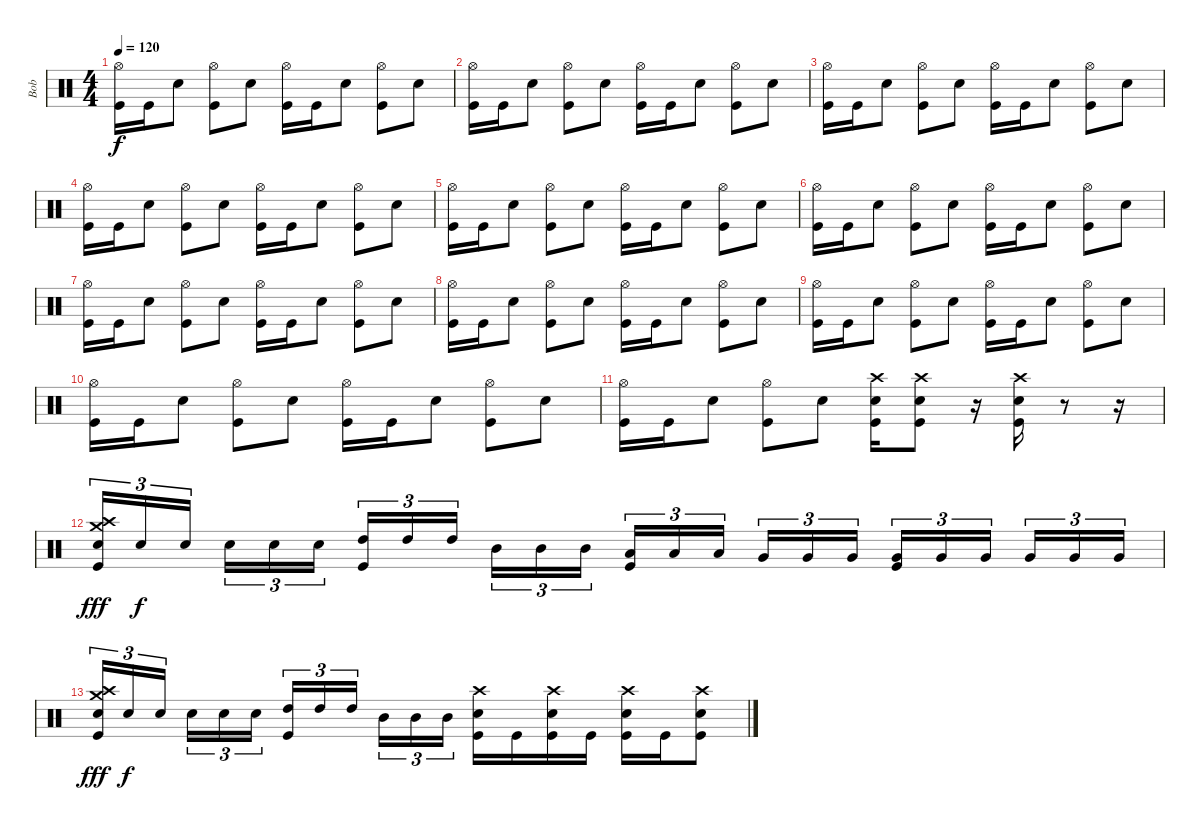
\track ("Bob" "Bob") {instrument percussion}
\staff {score}
\articulation defaults
\ts (4 4)
\tempo 120
\clef neutral
\ks c
("Hi-Hat (open)" "Kick (hit)").16{dy f} "Kick (hit)".16 "Snare (hit) 2".8 ("Hi-Hat (open)" "Kick (hit)").8 "Snare (hit) 2".8 ("Hi-Hat (open)" "Kick (hit)").16 "Kick (hit)".16 "Snare (hit) 2".8 ("Hi-Hat (open)" "Kick (hit)").8 "Snare (hit) 2".8 |
("Hi-Hat (open)" "Kick (hit)").16 "Kick (hit)".16 "Snare (hit) 2".8 ("Hi-Hat (open)" "Kick (hit)").8 "Snare (hit) 2".8 ("Hi-Hat (open)" "Kick (hit)").16 "Kick (hit)".16 "Snare (hit) 2".8 ("Hi-Hat (open)" "Kick (hit)").8 "Snare (hit) 2".8 |
("Hi-Hat (open)" "Kick (hit)").16 "Kick (hit)".16 "Snare (hit) 2".8 ("Hi-Hat (open)" "Kick (hit)").8 "Snare (hit) 2".8 ("Hi-Hat (open)" "Kick (hit)").16 "Kick (hit)".16 "Snare (hit) 2".8 ("Hi-Hat (open)" "Kick (hit)").8 "Snare (hit) 2".8 |
("Hi-Hat (open)" "Kick (hit)").16 "Kick (hit)".16 "Snare (hit) 2".8 ("Hi-Hat (open)" "Kick (hit)").8 "Snare (hit) 2".8 ("Hi-Hat (open)" "Kick (hit)").16 "Kick (hit)".16 "Snare (hit) 2".8 ("Hi-Hat (open)" "Kick (hit)").8 "Snare (hit) 2".8 |
("Hi-Hat (open)" "Kick (hit)").16 "Kick (hit)".16 "Snare (hit) 2".8 ("Hi-Hat (open)" "Kick (hit)").8 "Snare (hit) 2".8 ("Hi-Hat (open)" "Kick (hit)").16 "Kick (hit)".16 "Snare (hit) 2".8 ("Hi-Hat (open)" "Kick (hit)").8 "Snare (hit) 2".8 |
("Hi-Hat (open)" "Kick (hit)").16 "Kick (hit)".16 "Snare (hit) 2".8 ("Hi-Hat (open)" "Kick (hit)").8 "Snare (hit) 2".8 ("Hi-Hat (open)" "Kick (hit)").16 "Kick (hit)".16 "Snare (hit) 2".8 ("Hi-Hat (open)" "Kick (hit)").8 "Snare (hit) 2".8 |
("Hi-Hat (open)" "Kick (hit)").16 "Kick (hit)".16 "Snare (hit) 2".8 ("Hi-Hat (open)" "Kick (hit)").8 "Snare (hit) 2".8 ("Hi-Hat (open)" "Kick (hit)").16 "Kick (hit)".16 "Snare (hit) 2".8 ("Hi-Hat (open)" "Kick (hit)").8 "Snare (hit) 2".8 |
("Hi-Hat (open)" "Kick (hit)").16 "Kick (hit)".16 "Snare (hit) 2".8 ("Hi-Hat (open)" "Kick (hit)").8 "Snare (hit) 2".8 ("Hi-Hat (open)" "Kick (hit)").16 "Kick (hit)".16 "Snare (hit) 2".8 ("Hi-Hat (open)" "Kick (hit)").8 "Snare (hit) 2".8 |
("Hi-Hat (open)" "Kick (hit)").16 "Kick (hit)".16 "Snare (hit) 2".8 ("Hi-Hat (open)" "Kick (hit)").8 "Snare (hit) 2".8 ("Hi-Hat (open)" "Kick (hit)").16 "Kick (hit)".16 "Snare (hit) 2".8 ("Hi-Hat (open)" "Kick (hit)").8 "Snare (hit) 2".8 |
("Hi-Hat (open)" "Kick (hit)").16 "Kick (hit)".16 "Snare (hit) 2".8 ("Hi-Hat (open)" "Kick (hit)").8 "Snare (hit) 2".8 ("Hi-Hat (open)" "Kick (hit)").16 "Kick (hit)".16 "Snare (hit) 2".8 ("Hi-Hat (open)" "Kick (hit)").8 "Snare (hit) 2".8 |
("Hi-Hat (open)" "Kick (hit)").16 "Kick (hit)".16 "Snare (hit) 2".8 ("Hi-Hat (open)" "Kick (hit)").8 "Snare (hit) 2".8 ("Crash high (hit)" "Snare (hit) 2" "Kick (hit)").16 ("Crash high (hit)" "Snare (hit) 2" "Kick (hit)").8 r.16 ("Crash high (hit)" "Snare (hit) 2" "Kick (hit)").16 r.8 r.16 |
("Crash high (hit)" "Crash medium (hit)" "Electric Snare (hit)" "Kick (hit)").16{tu (3 2) dy fff} "Electric Snare (hit)".16{tu (3 2) dy f} "Electric Snare (hit)".16{tu (3 2)} "Snare (hit) 2".16{tu (3 2)} "Snare (hit) 2".16{tu (3 2)} "Snare (hit) 2".16{tu (3 2)} ("High Tom (hit)" "Kick (hit)").16{tu (3 2)} "High Tom (hit)".16{tu (3 2)} "High Tom (hit)".16{tu (3 2)} "Mid Tom (hit)".16{tu (3 2)} "Mid Tom (hit)".16{tu (3 2)} "Mid Tom (hit)".16{tu (3 2)} ("Low Tom (hit)" "Kick (hit)").16{tu (3 2)} "Low Tom (hit)".16{tu (3 2)} "Low Tom (hit)".16{tu (3 2)} "Very Low Tom (hit)".16{tu (3 2)} "Very Low Tom (hit)".16{tu (3 2)} "Very Low Tom (hit)".16{tu (3 2)} ("Very Low Tom (hit)" "Kick (hit)").16{tu (3 2)} "Very Low Tom (hit)".16{tu (3 2)} "Very Low Tom (hit)".16{tu (3 2)} "Very Low Tom (hit)".16{tu (3 2)} "Very Low Tom (hit)".16{tu (3 2)} "Very Low Tom (hit)".16{tu (3 2)} |
("Crash high (hit)" "Crash medium (hit)" "Electric Snare (hit)" "Kick (hit)").16{tu (3 2) dy fff} "Electric Snare (hit)".16{tu (3 2) dy f} "Electric Snare (hit)".16{tu (3 2)} "Snare (hit) 2".16{tu (3 2)} "Snare (hit) 2".16{tu (3 2)} "Snare (hit) 2".16{tu (3 2)} ("High Tom (hit)" "Kick (hit)").16{tu (3 2)} "High Tom (hit)".16{tu (3 2)} "High Tom (hit)".16{tu (3 2)} "Mid Tom (hit)".16{tu (3 2)} "Mid Tom (hit)".16{tu (3 2)} "Mid Tom (hit)".16{tu (3 2)} ("Crash high (hit)" "Snare (hit) 2" "Kick (hit)").16 "Kick (hit)".16 ("Crash high (hit)" "Snare (hit) 2" "Kick (hit)").16 "Kick (hit)".16 ("Crash high (hit)" "Snare (hit) 2" "Kick (hit)").16 "Kick (hit)".16 ("Crash high (hit)" "Snare (hit) 2" "Kick (hit)").8
